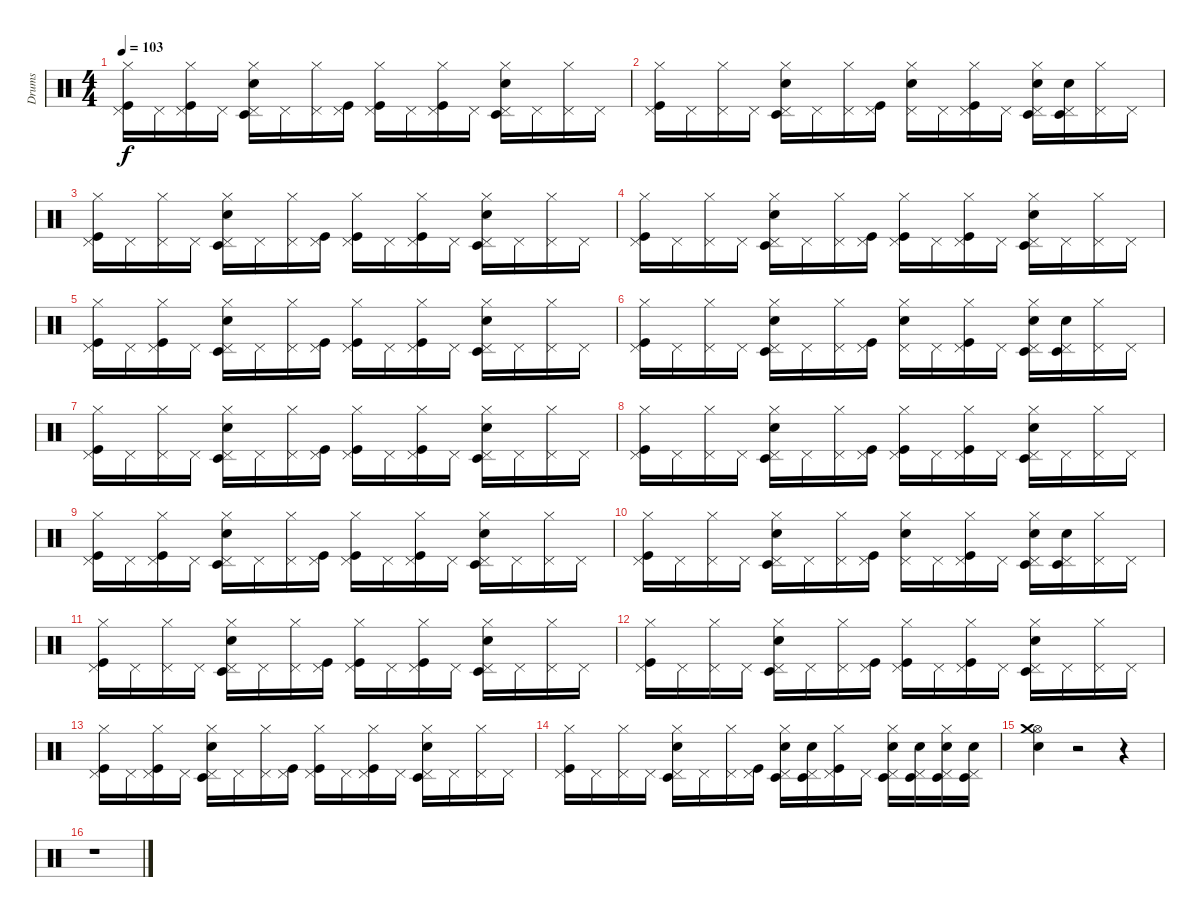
\track ("Drums" "Drums") {instrument percussion}
\staff {score}
\articulation defaults
\ts (4 4)
\tempo 103
\clef neutral
\ks c
("Hi-Hat (closed)" "Kick (hit)" "Pedal Hi-Hat (hit)").16{dy f} "Pedal Hi-Hat (hit)".16 ("Kick (hit)" "Hi-Hat (closed)" "Pedal Hi-Hat (hit)").16 "Pedal Hi-Hat (hit)".16 ("Timbale low (hit)" "Hi-Hat (closed)" "Electric Snare (hit)" "Pedal Hi-Hat (hit)").16 "Pedal Hi-Hat (hit)".16 ("Hi-Hat (closed)" "Pedal Hi-Hat (hit)").16 ("Kick (hit)" "Pedal Hi-Hat (hit)").16 ("Kick (hit)" "Hi-Hat (closed)" "Pedal Hi-Hat (hit)").16 "Pedal Hi-Hat (hit)".16 ("Kick (hit)" "Hi-Hat (closed)" "Pedal Hi-Hat (hit)").16 "Pedal Hi-Hat (hit)".16 ("Timbale low (hit)" "Electric Snare (hit)" "Hi-Hat (closed)" "Pedal Hi-Hat (hit)").16 "Pedal Hi-Hat (hit)".16 ("Hi-Hat (closed)" "Pedal Hi-Hat (hit)").16 "Pedal Hi-Hat (hit)".16 |
("Hi-Hat (closed)" "Kick (hit)" "Pedal Hi-Hat (hit)").16 "Pedal Hi-Hat (hit)".16 ("Hi-Hat (closed)" "Pedal Hi-Hat (hit)").16 "Pedal Hi-Hat (hit)".16 ("Hi-Hat (closed)" "Electric Snare (hit)" "Timbale low (hit)" "Pedal Hi-Hat (hit)").16 "Pedal Hi-Hat (hit)".16 ("Hi-Hat (closed)" "Pedal Hi-Hat (hit)").16 ("Pedal Hi-Hat (hit)" "Kick (hit)").16 ("Hi-Hat (closed)" "Pedal Hi-Hat (hit)" "Electric Snare (hit)").16 "Pedal Hi-Hat (hit)".16 ("Kick (hit)" "Hi-Hat (closed)" "Pedal Hi-Hat (hit)").16 "Pedal Hi-Hat (hit)".16 ("Electric Snare (hit)" "Hi-Hat (closed)" "Timbale low (hit)" "Pedal Hi-Hat (hit)").16 ("Timbale low (hit)" "Electric Snare (hit)" "Pedal Hi-Hat (hit)").16 ("Hi-Hat (closed)" "Pedal Hi-Hat (hit)").16 "Pedal Hi-Hat (hit)".16 |
("Hi-Hat (closed)" "Kick (hit)" "Pedal Hi-Hat (hit)").16 "Pedal Hi-Hat (hit)".16 ("Hi-Hat (closed)" "Pedal Hi-Hat (hit)").16 "Pedal Hi-Hat (hit)".16 ("Hi-Hat (closed)" "Timbale low (hit)" "Electric Snare (hit)" "Pedal Hi-Hat (hit)").16 "Pedal Hi-Hat (hit)".16 ("Hi-Hat (closed)" "Pedal Hi-Hat (hit)").16 ("Kick (hit)" "Pedal Hi-Hat (hit)").16 ("Hi-Hat (closed)" "Kick (hit)" "Pedal Hi-Hat (hit)").16 "Pedal Hi-Hat (hit)".16 ("Hi-Hat (closed)" "Kick (hit)" "Pedal Hi-Hat (hit)").16 "Pedal Hi-Hat (hit)".16 ("Timbale low (hit)" "Electric Snare (hit)" "Hi-Hat (closed)" "Pedal Hi-Hat (hit)").16 "Pedal Hi-Hat (hit)".16 ("Hi-Hat (closed)" "Pedal Hi-Hat (hit)").16 "Pedal Hi-Hat (hit)".16 |
("Hi-Hat (closed)" "Kick (hit)" "Pedal Hi-Hat (hit)").16 "Pedal Hi-Hat (hit)".16 ("Hi-Hat (closed)" "Pedal Hi-Hat (hit)").16 "Pedal Hi-Hat (hit)".16 ("Timbale low (hit)" "Hi-Hat (closed)" "Electric Snare (hit)" "Pedal Hi-Hat (hit)").16 "Pedal Hi-Hat (hit)".16 ("Hi-Hat (closed)" "Pedal Hi-Hat (hit)").16 ("Kick (hit)" "Pedal Hi-Hat (hit)").16 ("Hi-Hat (closed)" "Kick (hit)" "Pedal Hi-Hat (hit)").16 "Pedal Hi-Hat (hit)".16 ("Hi-Hat (closed)" "Kick (hit)" "Pedal Hi-Hat (hit)").16 "Pedal Hi-Hat (hit)".16 ("Electric Snare (hit)" "Hi-Hat (closed)" "Timbale low (hit)" "Pedal Hi-Hat (hit)").16 "Pedal Hi-Hat (hit)".16 ("Hi-Hat (closed)" "Pedal Hi-Hat (hit)").16 "Pedal Hi-Hat (hit)".16 |
("Hi-Hat (closed)" "Kick (hit)" "Pedal Hi-Hat (hit)").16 "Pedal Hi-Hat (hit)".16 ("Kick (hit)" "Hi-Hat (closed)" "Pedal Hi-Hat (hit)").16 "Pedal Hi-Hat (hit)".16 ("Timbale low (hit)" "Hi-Hat (closed)" "Electric Snare (hit)" "Pedal Hi-Hat (hit)").16 "Pedal Hi-Hat (hit)".16 ("Hi-Hat (closed)" "Pedal Hi-Hat (hit)").16 ("Kick (hit)" "Pedal Hi-Hat (hit)").16 ("Kick (hit)" "Hi-Hat (closed)" "Pedal Hi-Hat (hit)").16 "Pedal Hi-Hat (hit)".16 ("Kick (hit)" "Hi-Hat (closed)" "Pedal Hi-Hat (hit)").16 "Pedal Hi-Hat (hit)".16 ("Timbale low (hit)" "Electric Snare (hit)" "Hi-Hat (closed)" "Pedal Hi-Hat (hit)").16 "Pedal Hi-Hat (hit)".16 ("Hi-Hat (closed)" "Pedal Hi-Hat (hit)").16 "Pedal Hi-Hat (hit)".16 |
("Hi-Hat (closed)" "Kick (hit)" "Pedal Hi-Hat (hit)").16 "Pedal Hi-Hat (hit)".16 ("Hi-Hat (closed)" "Pedal Hi-Hat (hit)").16 "Pedal Hi-Hat (hit)".16 ("Hi-Hat (closed)" "Electric Snare (hit)" "Timbale low (hit)" "Pedal Hi-Hat (hit)").16 "Pedal Hi-Hat (hit)".16 ("Hi-Hat (closed)" "Pedal Hi-Hat (hit)").16 ("Pedal Hi-Hat (hit)" "Kick (hit)").16 ("Hi-Hat (closed)" "Pedal Hi-Hat (hit)" "Electric Snare (hit)").16 "Pedal Hi-Hat (hit)".16 ("Kick (hit)" "Hi-Hat (closed)" "Pedal Hi-Hat (hit)").16 "Pedal Hi-Hat (hit)".16 ("Electric Snare (hit)" "Hi-Hat (closed)" "Timbale low (hit)" "Pedal Hi-Hat (hit)").16 ("Timbale low (hit)" "Electric Snare (hit)" "Pedal Hi-Hat (hit)").16 ("Hi-Hat (closed)" "Pedal Hi-Hat (hit)").16 "Pedal Hi-Hat (hit)".16 |
("Hi-Hat (closed)" "Kick (hit)" "Pedal Hi-Hat (hit)").16 "Pedal Hi-Hat (hit)".16 ("Hi-Hat (closed)" "Pedal Hi-Hat (hit)").16 "Pedal Hi-Hat (hit)".16 ("Hi-Hat (closed)" "Timbale low (hit)" "Electric Snare (hit)" "Pedal Hi-Hat (hit)").16 "Pedal Hi-Hat (hit)".16 ("Hi-Hat (closed)" "Pedal Hi-Hat (hit)").16 ("Kick (hit)" "Pedal Hi-Hat (hit)").16 ("Hi-Hat (closed)" "Kick (hit)" "Pedal Hi-Hat (hit)").16 "Pedal Hi-Hat (hit)".16 ("Hi-Hat (closed)" "Kick (hit)" "Pedal Hi-Hat (hit)").16 "Pedal Hi-Hat (hit)".16 ("Timbale low (hit)" "Electric Snare (hit)" "Hi-Hat (closed)" "Pedal Hi-Hat (hit)").16 "Pedal Hi-Hat (hit)".16 ("Hi-Hat (closed)" "Pedal Hi-Hat (hit)").16 "Pedal Hi-Hat (hit)".16 |
("Hi-Hat (closed)" "Kick (hit)" "Pedal Hi-Hat (hit)").16 "Pedal Hi-Hat (hit)".16 ("Hi-Hat (closed)" "Pedal Hi-Hat (hit)").16 "Pedal Hi-Hat (hit)".16 ("Timbale low (hit)" "Hi-Hat (closed)" "Electric Snare (hit)" "Pedal Hi-Hat (hit)").16 "Pedal Hi-Hat (hit)".16 ("Hi-Hat (closed)" "Pedal Hi-Hat (hit)").16 ("Kick (hit)" "Pedal Hi-Hat (hit)").16 ("Hi-Hat (closed)" "Kick (hit)" "Pedal Hi-Hat (hit)").16 "Pedal Hi-Hat (hit)".16 ("Hi-Hat (closed)" "Kick (hit)" "Pedal Hi-Hat (hit)").16 "Pedal Hi-Hat (hit)".16 ("Electric Snare (hit)" "Hi-Hat (closed)" "Timbale low (hit)" "Pedal Hi-Hat (hit)").16 "Pedal Hi-Hat (hit)".16 ("Hi-Hat (closed)" "Pedal Hi-Hat (hit)").16 "Pedal Hi-Hat (hit)".16 |
("Hi-Hat (closed)" "Kick (hit)" "Pedal Hi-Hat (hit)").16 "Pedal Hi-Hat (hit)".16 ("Kick (hit)" "Hi-Hat (closed)" "Pedal Hi-Hat (hit)").16 "Pedal Hi-Hat (hit)".16 ("Timbale low (hit)" "Hi-Hat (closed)" "Electric Snare (hit)" "Pedal Hi-Hat (hit)").16 "Pedal Hi-Hat (hit)".16 ("Hi-Hat (closed)" "Pedal Hi-Hat (hit)").16 ("Kick (hit)" "Pedal Hi-Hat (hit)").16 ("Kick (hit)" "Hi-Hat (closed)" "Pedal Hi-Hat (hit)").16 "Pedal Hi-Hat (hit)".16 ("Kick (hit)" "Hi-Hat (closed)" "Pedal Hi-Hat (hit)").16 "Pedal Hi-Hat (hit)".16 ("Timbale low (hit)" "Electric Snare (hit)" "Hi-Hat (closed)" "Pedal Hi-Hat (hit)").16 "Pedal Hi-Hat (hit)".16 ("Hi-Hat (closed)" "Pedal Hi-Hat (hit)").16 "Pedal Hi-Hat (hit)".16 |
("Hi-Hat (closed)" "Kick (hit)" "Pedal Hi-Hat (hit)").16 "Pedal Hi-Hat (hit)".16 ("Hi-Hat (closed)" "Pedal Hi-Hat (hit)").16 "Pedal Hi-Hat (hit)".16 ("Hi-Hat (closed)" "Electric Snare (hit)" "Timbale low (hit)" "Pedal Hi-Hat (hit)").16 "Pedal Hi-Hat (hit)".16 ("Hi-Hat (closed)" "Pedal Hi-Hat (hit)").16 ("Pedal Hi-Hat (hit)" "Kick (hit)").16 ("Hi-Hat (closed)" "Pedal Hi-Hat (hit)" "Electric Snare (hit)").16 "Pedal Hi-Hat (hit)".16 ("Kick (hit)" "Hi-Hat (closed)" "Pedal Hi-Hat (hit)").16 "Pedal Hi-Hat (hit)".16 ("Electric Snare (hit)" "Hi-Hat (closed)" "Timbale low (hit)" "Pedal Hi-Hat (hit)").16 ("Timbale low (hit)" "Electric Snare (hit)" "Pedal Hi-Hat (hit)").16 ("Hi-Hat (closed)" "Pedal Hi-Hat (hit)").16 "Pedal Hi-Hat (hit)".16 |
("Hi-Hat (closed)" "Kick (hit)" "Pedal Hi-Hat (hit)").16 "Pedal Hi-Hat (hit)".16 ("Hi-Hat (closed)" "Pedal Hi-Hat (hit)").16 "Pedal Hi-Hat (hit)".16 ("Hi-Hat (closed)" "Timbale low (hit)" "Electric Snare (hit)" "Pedal Hi-Hat (hit)").16 "Pedal Hi-Hat (hit)".16 ("Hi-Hat (closed)" "Pedal Hi-Hat (hit)").16 ("Kick (hit)" "Pedal Hi-Hat (hit)").16 ("Hi-Hat (closed)" "Kick (hit)" "Pedal Hi-Hat (hit)").16 "Pedal Hi-Hat (hit)".16 ("Hi-Hat (closed)" "Kick (hit)" "Pedal Hi-Hat (hit)").16 "Pedal Hi-Hat (hit)".16 ("Timbale low (hit)" "Electric Snare (hit)" "Hi-Hat (closed)" "Pedal Hi-Hat (hit)").16 "Pedal Hi-Hat (hit)".16 ("Hi-Hat (closed)" "Pedal Hi-Hat (hit)").16 "Pedal Hi-Hat (hit)".16 |
("Hi-Hat (closed)" "Kick (hit)" "Pedal Hi-Hat (hit)").16 "Pedal Hi-Hat (hit)".16 ("Hi-Hat (closed)" "Pedal Hi-Hat (hit)").16 "Pedal Hi-Hat (hit)".16 ("Timbale low (hit)" "Hi-Hat (closed)" "Electric Snare (hit)" "Pedal Hi-Hat (hit)").16 "Pedal Hi-Hat (hit)".16 ("Hi-Hat (closed)" "Pedal Hi-Hat (hit)").16 ("Kick (hit)" "Pedal Hi-Hat (hit)").16 ("Hi-Hat (closed)" "Kick (hit)" "Pedal Hi-Hat (hit)").16 "Pedal Hi-Hat (hit)".16 ("Hi-Hat (closed)" "Kick (hit)" "Pedal Hi-Hat (hit)").16 "Pedal Hi-Hat (hit)".16 ("Electric Snare (hit)" "Hi-Hat (closed)" "Timbale low (hit)" "Pedal Hi-Hat (hit)").16 "Pedal Hi-Hat (hit)".16 ("Hi-Hat (closed)" "Pedal Hi-Hat (hit)").16 "Pedal Hi-Hat (hit)".16 |
("Hi-Hat (closed)" "Kick (hit)" "Pedal Hi-Hat (hit)").16 "Pedal Hi-Hat (hit)".16 ("Kick (hit)" "Hi-Hat (closed)" "Pedal Hi-Hat (hit)").16 "Pedal Hi-Hat (hit)".16 ("Timbale low (hit)" "Hi-Hat (closed)" "Electric Snare (hit)" "Pedal Hi-Hat (hit)").16 "Pedal Hi-Hat (hit)".16 ("Hi-Hat (closed)" "Pedal Hi-Hat (hit)").16 ("Kick (hit)" "Pedal Hi-Hat (hit)").16 ("Kick (hit)" "Hi-Hat (closed)" "Pedal Hi-Hat (hit)").16 "Pedal Hi-Hat (hit)".16 ("Kick (hit)" "Hi-Hat (closed)" "Pedal Hi-Hat (hit)").16 "Pedal Hi-Hat (hit)".16 ("Timbale low (hit)" "Electric Snare (hit)" "Hi-Hat (closed)" "Pedal Hi-Hat (hit)").16 "Pedal Hi-Hat (hit)".16 ("Hi-Hat (closed)" "Pedal Hi-Hat (hit)").16 "Pedal Hi-Hat (hit)".16 |
("Hi-Hat (closed)" "Kick (hit)" "Pedal Hi-Hat (hit)").16 "Pedal Hi-Hat (hit)".16 ("Hi-Hat (closed)" "Pedal Hi-Hat (hit)").16 "Pedal Hi-Hat (hit)".16 ("Hi-Hat (closed)" "Electric Snare (hit)" "Timbale low (hit)" "Pedal Hi-Hat (hit)").16 "Pedal Hi-Hat (hit)".16 ("Hi-Hat (closed)" "Pedal Hi-Hat (hit)").16 ("Pedal Hi-Hat (hit)" "Kick (hit)").16 ("Timbale low (hit)" "Hi-Hat (closed)" "Pedal Hi-Hat (hit)" "Electric Snare (hit)").16 ("Timbale low (hit)" "Electric Snare (hit)" "Pedal Hi-Hat (hit)").16 ("Kick (hit)" "Hi-Hat (closed)" "Pedal Hi-Hat (hit)").16 "Pedal Hi-Hat (hit)".16 ("Electric Snare (hit)" "Hi-Hat (closed)" "Timbale low (hit)" "Pedal Hi-Hat (hit)").16 ("Timbale low (hit)" "Electric Snare (hit)" "Pedal Hi-Hat (hit)").16 ("Timbale low (hit)" "Electric Snare (hit)" "Hi-Hat (closed)" "Pedal Hi-Hat (hit)").16 ("Timbale low (hit)" "Electric Snare (hit)" "Pedal Hi-Hat (hit)").16 |
("Electric Snare (hit)" "Hi-Hat (open)" "Crash medium (hit)").4 r.2 r.4 |
r.1
